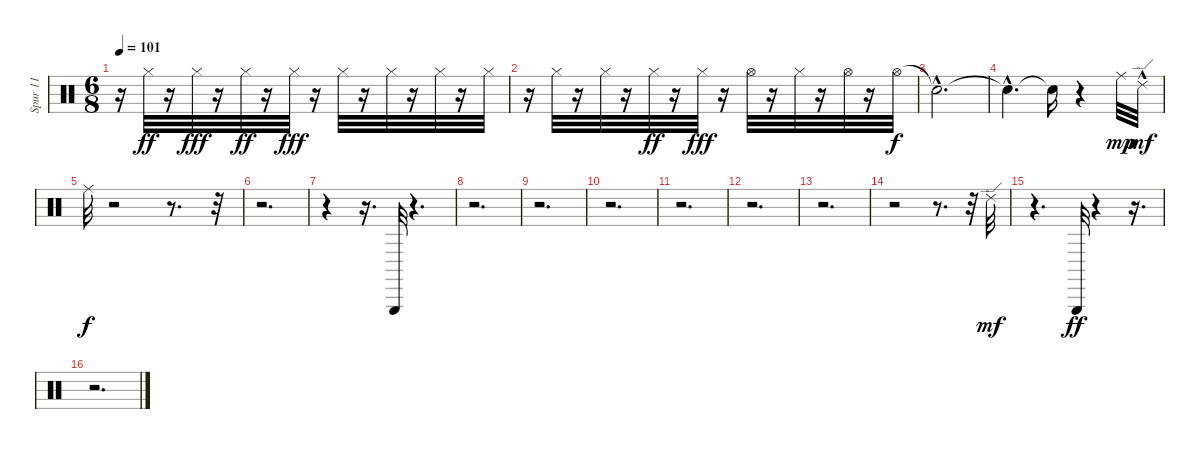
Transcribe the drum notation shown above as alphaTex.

\track ("Spur 11" "Spur 11") {instrument percussion}
\staff {score}
\articulation defaults
\ts (6 8)
\tempo 101
\clef neutral
\ks c
r.16{dy fff} "Hi-Hat (closed)".32{dy ff} r.16 "Hi-Hat (closed)".32{dy fff} r.16 "Hi-Hat (closed)".32{dy ff} r.16 "Hi-Hat (closed)".32{dy fff} r.16 "Hi-Hat (closed)".32 r.16 "Hi-Hat (closed)".32 r.16 "Hi-Hat (closed)".32 r.16 "Hi-Hat (closed)".32 |
r.16 "Hi-Hat (closed)".32 r.16 "Hi-Hat (closed)".32 r.16 "Hi-Hat (closed)".32{dy ff} r.16 "Hi-Hat (closed)".32{dy fff} r.16 "Hi-Hat (open)".32 r.16 "Hi-Hat (closed)".32 r.16 "Hi-Hat (open)".32 r.16 "Hi-Hat (open)".32{dy f} |
"Snare (hit)"{hac t}.2{d} |
"Snare (hit)"{hac t}.4{d} "Snare (hit)"{t}.16 r.4 "Ride (middle)".32{dy mp} "Ride (edge) 2"{hac}.32{dy mf} |
"Ride (middle)".32{dy f} r.2 r.8{d} r.32 |
r.2{d} |
r.4 r.16{d} "Triangle (hit)".32 r.4{d} |
r.2{d} |
r.2{d} |
r.2{d} |
r.2{d} |
r.2{d} |
r.2{d} |
r.2 r.8{d} r.32 "Ride (edge) 2".32{dy mf} |
r.4{d} "Triangle (hit)".32{dy ff} r.4 r.16{d} |
r.2{d}
